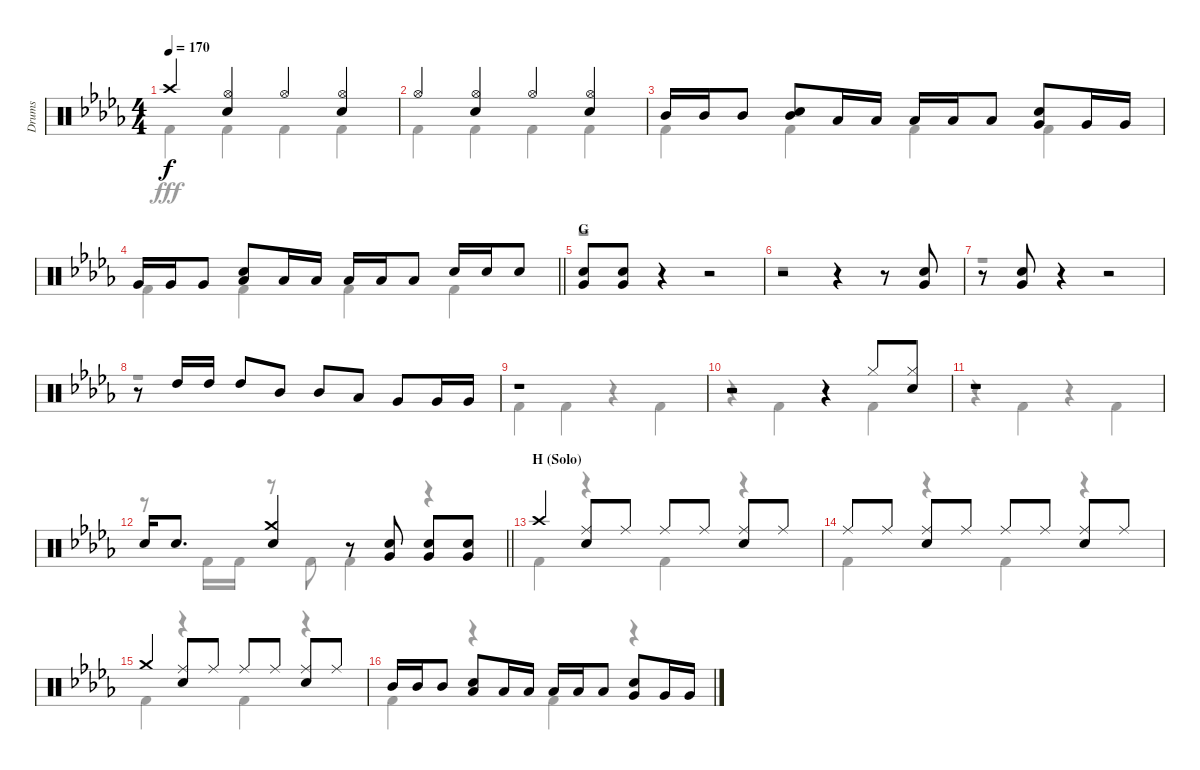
\track ("Drums" "Drums") {instrument percussion}
\staff {score}
\articulation defaults
\voice
\ts (4 4)
\tempo 170
\clef neutral
\ks db "Crash high (hit)".4{dy f}
("Hi-Hat (open)" "Snare (hit) 2").4 "Hi-Hat (open)".4 ("Hi-Hat (open)" "Snare (hit) 2").4 |
"Hi-Hat (open)".4 ("Hi-Hat (open)" "Snare (hit) 2").4 "Hi-Hat (open)".4 ("Hi-Hat (open)" "Snare (hit) 2").4 |
"Mid Tom (hit)".16 "Mid Tom (hit)".16 "Mid Tom (hit)".8 ("Mid Tom (hit)" "Snare (hit) 2").8 "Low Tom (hit)".16 "Low Tom (hit)".16 "Low Tom (hit)".16 "Low Tom (hit)".16 "Low Tom (hit)".8 ("Snare (hit) 2" "Very Low Tom (hit)").8 "Very Low Tom (hit)".16 "Very Low Tom (hit)".16 |
\barLineRight lightlight "Very Low Tom (hit)".16 "Very Low Tom (hit)".16 "Very Low Tom (hit)".8
("Snare (hit) 2" "Low Tom (hit)").8 "Low Tom (hit)".16 "Low Tom (hit)".16 "Low Tom (hit)".16 "Low Tom (hit)".16 "Low Tom (hit)".8 "Snare (hit) 2".16 "Snare (hit) 2".16 "Snare (hit) 2".8 |
\section ("" "G")
("Snare (hit) 2" "Very Low Tom (hit)").8 ("Snare (hit) 2" "Very Low Tom (hit)").8 r.4 r.2 |
r.2 r.4 r.8 ("Snare (hit) 2" "Very Low Tom (hit)").8 |
r.8 ("Snare (hit) 2" "Very Low Tom (hit)").8 r.4 r.2 |
r.8 "High Tom (hit)".16 "High Tom (hit)".16 "High Tom (hit)".8 "Mid Tom (hit)".8 "Mid Tom (hit)".8 "Low Tom (hit)".8 "Very Low Tom (hit)".8 "Very Low Tom (hit)".16 "Very Low Tom (hit)".16 |
r.1 |
r.2 r.4 "Hi-Hat (closed)".8 ("Hi-Hat (closed)" "Snare (hit) 2").8 |
r.1 |
\barLineRight lightlight "Snare (hit) 2".16 "Snare (hit) 2".8{d}
("Crash medium (hit)" "Snare (hit) 2").4 r.8 ("Snare (hit) 2" "Very Low Tom (hit)").8 ("Snare (hit) 2" "Very Low Tom (hit)").8 ("Snare (hit) 2" "Very Low Tom (hit)").8 |
\section ("" "H (Solo)")
"Crash high (hit)".4 ("Ride (middle)" "Snare (hit) 2").8 "Ride (middle)".8 "Ride (middle)".8 "Ride (middle)".8 ("Ride (middle)" "Snare (hit) 2").8 "Ride (middle)".8 |
"Ride (middle)".8 "Ride (middle)".8 ("Ride (middle)" "Snare (hit) 2").8 "Ride (middle)".8 "Ride (middle)".8 "Ride (middle)".8 ("Ride (middle)" "Snare (hit) 2").8 "Ride (middle)".8 |
"Crash medium (hit)".4 ("Ride (middle)" "Snare (hit) 2").8 "Ride (middle)".8 "Ride (middle)".8 "Ride (middle)".8 ("Ride (middle)" "Snare (hit) 2").8 "Ride (middle)".8 |
"Mid Tom (hit)".16 "Mid Tom (hit)".16 "Mid Tom (hit)".8 ("Snare (hit) 2" "Low Tom (hit)").8 "Low Tom (hit)".16 "Low Tom (hit)".16 "Low Tom (hit)".16 "Low Tom (hit)".16 "Low Tom (hit)".8 ("Snare (hit) 2" "Very Low Tom (hit)").8 "Very Low Tom (hit)".16 "Very Low Tom (hit)".16
\voice
\clef neutral
\ottava regular
\simile none
\ks db "Kick (hit) 2".4{dy fff} "Kick (hit) 2".4 "Kick (hit) 2".4 "Kick (hit) 2".4
|
"Kick (hit) 2".4 "Kick (hit) 2".4 "Kick (hit) 2".4 "Kick (hit) 2".4 |
"Kick (hit) 2".4 "Kick (hit) 2".4 "Kick (hit) 2".4 "Kick (hit) 2".4 |
\barLineRight lightlight "Kick (hit) 2".4 "Kick (hit) 2".4 "Kick (hit) 2".4 "Kick (hit) 2".4
|
r.1 |
r.1 |
r.1 |
r.1 |
"Kick (hit) 2".4 "Kick (hit) 2".4 r.4 "Kick (hit) 2".4 |
r.4 "Kick (hit) 2".4 r.4 "Kick (hit) 2".4 |
r.4 "Kick (hit) 2".4 r.4 "Kick (hit) 2".4 |
\barLineRight lightlight
r.8 "Kick (hit) 2".16 "Kick (hit) 2".16 r.8 "Kick (hit) 2".8 "Kick (hit) 2".4 r.4 |
"Kick (hit) 2".4 r.4 "Kick (hit) 2".4 r.4 |
"Kick (hit) 2".4 r.4 "Kick (hit) 2".4 r.4 |
"Kick (hit) 2".4 r.4 "Kick (hit) 2".4 r.4 |
"Kick (hit) 2".4 r.4 "Kick (hit) 2".4 r.4
